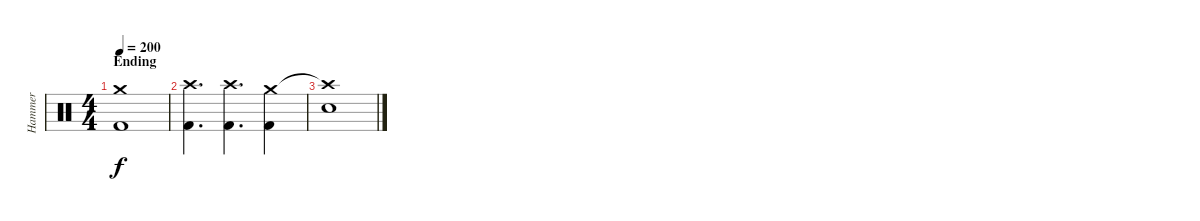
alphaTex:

\track ("Hammer" "Hammer") {instrument percussion}
\staff {score}
\articulation defaults
\ts (4 4)
\section ("" "Ending")
\tempo 200
\clef neutral
\ks c
("Crash medium (hit)" "Kick (hit) 2").1{dy f} |
("Crash high (hit)" "Kick (hit) 2").4{d} ("Crash high (hit)" "Kick (hit) 2").4{d} ("Crash medium (hit)" "Kick (hit) 2").4 |
("Crash high (hit)"{t} "Snare (hit)").1
